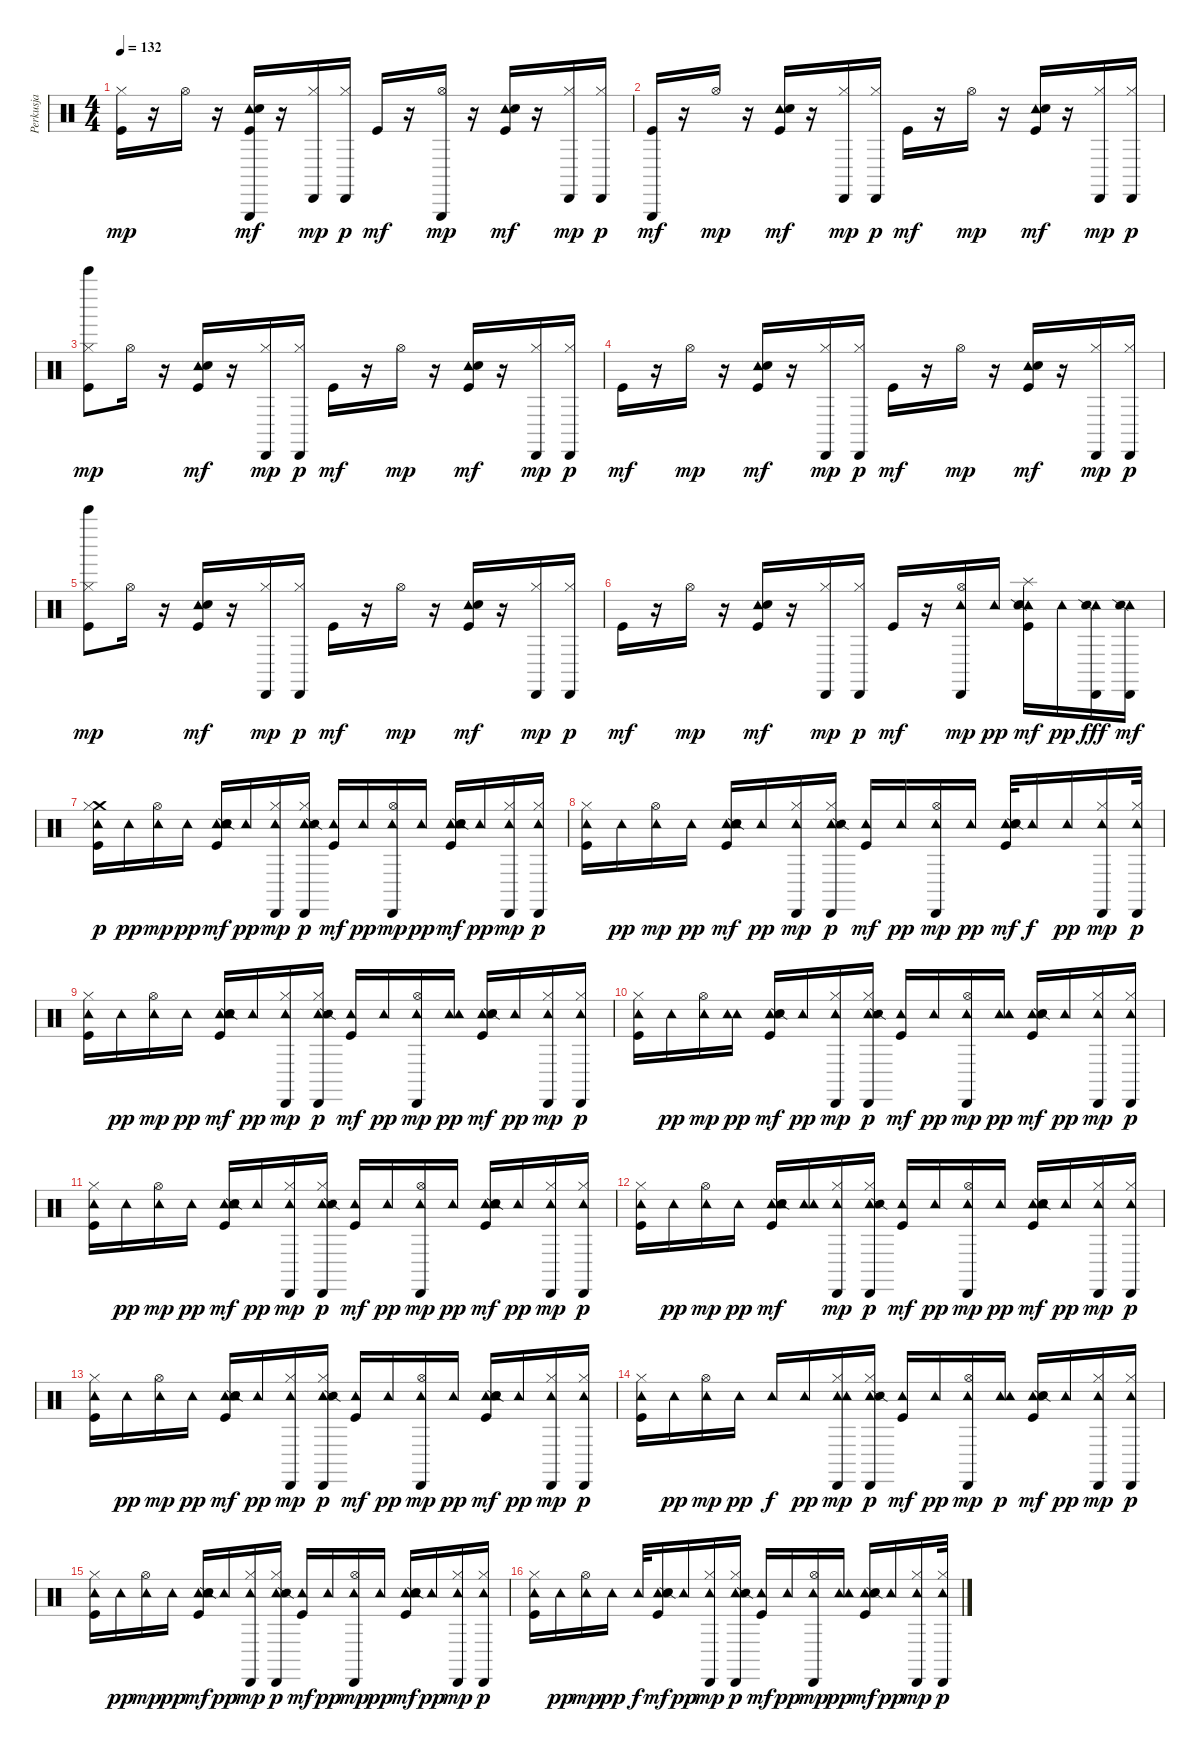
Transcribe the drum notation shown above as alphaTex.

\track ("Perkusja" "Perkusja") {instrument percussion}
\staff {score}
\articulation defaults
\ts (4 4)
\tempo 132
\clef neutral
\ks c
("Kick (hit)" "Hi-Hat (closed)").16{dy mp} r.16 "Hi-Hat (open)".16 r.16 ("Tambourine (hit)" "Snare (hit) 2" "Kick (hit)" "Triangle (hit)").16{dy mf} r.16 ("Cabasa (hit)" "Hi-Hat (closed)").16{dy mp} ("Cabasa (hit)" "Hi-Hat (closed)").16{dy p} "Kick (hit)".16{dy mf} r.16 ("Triangle (hit)" "Hi-Hat (open)").16{dy mp} r.16 ("Tambourine (hit)" "Snare (hit) 2" "Kick (hit)").16{dy mf} r.16 ("Cabasa (hit)" "Hi-Hat (closed)").16{dy mp} ("Cabasa (hit)" "Hi-Hat (closed)").16{dy p} |
("Triangle (hit)" "Kick (hit)").16{dy mf} r.16 "Hi-Hat (open)".16{dy mp} r.16 ("Tambourine (hit)" "Snare (hit) 2" "Kick (hit)").16{dy mf} r.16 ("Cabasa (hit)" "Hi-Hat (closed)").16{dy mp} ("Cabasa (hit)" "Hi-Hat (closed)").16{dy p} "Kick (hit)".16{dy mf} r.16 "Hi-Hat (open)".16{dy mp} r.16 ("Tambourine (hit)" "Snare (hit) 2" "Kick (hit)").16{dy mf} r.16 ("Cabasa (hit)" "Hi-Hat (closed)").16{dy mp} ("Cabasa (hit)" "Hi-Hat (closed)").16{dy p} |
("Bell Tree (hit)" "Kick (hit)" "Hi-Hat (closed)").8{dy mp} "Hi-Hat (open)".16 r.16 ("Tambourine (hit)" "Snare (hit) 2" "Kick (hit)").16{dy mf} r.16 ("Cabasa (hit)" "Hi-Hat (closed)").16{dy mp} ("Cabasa (hit)" "Hi-Hat (closed)").16{dy p} "Kick (hit)".16{dy mf} r.16 "Hi-Hat (open)".16{dy mp} r.16 ("Tambourine (hit)" "Snare (hit) 2" "Kick (hit)").16{dy mf} r.16 ("Cabasa (hit)" "Hi-Hat (closed)").16{dy mp} ("Cabasa (hit)" "Hi-Hat (closed)").16{dy p} |
"Kick (hit)".16{dy mf} r.16 "Hi-Hat (open)".16{dy mp} r.16 ("Tambourine (hit)" "Snare (hit) 2" "Kick (hit)").16{dy mf} r.16 ("Cabasa (hit)" "Hi-Hat (closed)").16{dy mp} ("Cabasa (hit)" "Hi-Hat (closed)").16{dy p} "Kick (hit)".16{dy mf} r.16 "Hi-Hat (open)".16{dy mp} r.16 ("Tambourine (hit)" "Snare (hit) 2" "Kick (hit)").16{dy mf} r.16 ("Cabasa (hit)" "Hi-Hat (closed)").16{dy mp} ("Cabasa (hit)" "Hi-Hat (closed)").16{dy p} |
("Bell Tree (hit)" "Kick (hit)" "Hi-Hat (closed)").8{dy mp} "Hi-Hat (open)".16 r.16 ("Tambourine (hit)" "Snare (hit) 2" "Kick (hit)").16{dy mf} r.16 ("Cabasa (hit)" "Hi-Hat (closed)").16{dy mp} ("Cabasa (hit)" "Hi-Hat (closed)").16{dy p} "Kick (hit)".16{dy mf} r.16 "Hi-Hat (open)".16{dy mp} r.16 ("Tambourine (hit)" "Snare (hit) 2" "Kick (hit)").16{dy mf} r.16 ("Cabasa (hit)" "Hi-Hat (closed)").16{dy mp} ("Cabasa (hit)" "Hi-Hat (closed)").16{dy p} |
"Kick (hit)".16{dy mf} r.16 "Hi-Hat (open)".16{dy mp} r.16 ("Tambourine (hit)" "Snare (hit) 2" "Kick (hit)").16{dy mf} r.16 ("Cabasa (hit)" "Hi-Hat (closed)").16{dy mp} ("Cabasa (hit)" "Hi-Hat (closed)").16{dy p} "Kick (hit)".16{dy mf} r.16 ("Tambourine (hit)" "Cabasa (hit)" "Hi-Hat (open)").16{dy mp} "Tambourine (hit)".16{dy pp} ("Tambourine (hit)" "Snare (hit) 2" "Snare (side stick) 2" "Kick (hit)" "Splash (hit)").16{dy mf} "Tambourine (hit)".16{dy pp} ("Tambourine (hit)" "Snare (side stick) 2" "Cabasa (hit)").16{dy fff} ("Tambourine (hit)" "Snare (side stick) 2" "Cabasa (hit)").16{dy mf} |
("Crash medium (hit)" "Tambourine (hit)" "Kick (hit)" "Hi-Hat (closed)").16{dy p} "Tambourine (hit)".16{dy pp} ("Tambourine (hit)" "Hi-Hat (open)").16{dy mp} "Tambourine (hit)".16{dy pp} ("Tambourine (hit)" "Snare (hit) 2" "Snare (side stick) 2" "Kick (hit)" "Tambourine (hit)").16{dy mf} "Tambourine (hit)".16{dy pp} ("Tambourine (hit)" "Cabasa (hit)" "Hi-Hat (closed)").16{dy mp} ("Tambourine (hit)" "Snare (side stick) 2" "Cabasa (hit)" "Hi-Hat (closed)").16{dy p} ("Tambourine (hit)" "Kick (hit)").16{dy mf} "Tambourine (hit)".16{dy pp} ("Tambourine (hit)" "Cabasa (hit)" "Hi-Hat (open)").16{dy mp} "Tambourine (hit)".16{dy pp} ("Tambourine (hit)" "Tambourine (hit)" "Snare (hit) 2" "Snare (side stick) 2" "Kick (hit)").16{dy mf} "Tambourine (hit)".16{dy pp} ("Tambourine (hit)" "Cabasa (hit)" "Hi-Hat (closed)").16{dy mp} ("Tambourine (hit)" "Cabasa (hit)" "Hi-Hat (closed)").16{dy p} |
("Tambourine (hit)" "Kick (hit)" "Hi-Hat (closed)").16 "Tambourine (hit)".16{dy pp} ("Tambourine (hit)" "Hi-Hat (open)").16{dy mp} "Tambourine (hit)".16{dy pp} ("Tambourine (hit)" "Snare (hit) 2" "Snare (side stick) 2" "Kick (hit)" "Tambourine (hit)").16{dy mf} "Tambourine (hit)".16{dy pp} ("Tambourine (hit)" "Cabasa (hit)" "Hi-Hat (closed)").16{dy mp} ("Tambourine (hit)" "Snare (side stick) 2" "Cabasa (hit)" "Hi-Hat (closed)").16{dy p} ("Tambourine (hit)" "Kick (hit)").16{dy mf} "Tambourine (hit)".16{dy pp} ("Tambourine (hit)" "Cabasa (hit)" "Hi-Hat (open)").16{dy mp} "Tambourine (hit)".16{dy pp} ("Tambourine (hit)" "Snare (hit) 2" "Snare (side stick) 2" "Kick (hit)").32{dy mf} "Tambourine (hit)".16{dy f} "Tambourine (hit)".16{dy pp} ("Tambourine (hit)" "Cabasa (hit)" "Hi-Hat (closed)").16{dy mp} ("Tambourine (hit)" "Cabasa (hit)" "Hi-Hat (closed)").32{dy p} |
("Tambourine (hit)" "Kick (hit)" "Hi-Hat (closed)").16 "Tambourine (hit)".16{dy pp} ("Tambourine (hit)" "Hi-Hat (open)").16{dy mp} "Tambourine (hit)".16{dy pp} ("Tambourine (hit)" "Tambourine (hit)" "Snare (hit) 2" "Snare (side stick) 2" "Kick (hit)").16{dy mf} "Tambourine (hit)".16{dy pp} ("Tambourine (hit)" "Cabasa (hit)" "Hi-Hat (closed)").16{dy mp} ("Tambourine (hit)" "Snare (side stick) 2" "Cabasa (hit)" "Hi-Hat (closed)").16{dy p} ("Tambourine (hit)" "Kick (hit)").16{dy mf} "Tambourine (hit)".16{dy pp} ("Tambourine (hit)" "Cabasa (hit)" "Hi-Hat (open)").16{dy mp} ("Tambourine (hit)" "Tambourine (hit)").16{dy pp} ("Tambourine (hit)" "Snare (hit) 2" "Snare (side stick) 2" "Kick (hit)").16{dy mf} "Tambourine (hit)".16{dy pp} ("Tambourine (hit)" "Cabasa (hit)" "Hi-Hat (closed)").16{dy mp} ("Tambourine (hit)" "Cabasa (hit)" "Hi-Hat (closed)").16{dy p} |
("Tambourine (hit)" "Kick (hit)" "Hi-Hat (closed)").16 "Tambourine (hit)".16{dy pp} ("Tambourine (hit)" "Hi-Hat (open)").16{dy mp} ("Tambourine (hit)" "Tambourine (hit)").16{dy pp} ("Tambourine (hit)" "Snare (hit) 2" "Snare (side stick) 2" "Kick (hit)").16{dy mf} "Tambourine (hit)".16{dy pp} ("Tambourine (hit)" "Cabasa (hit)" "Hi-Hat (closed)").16{dy mp} ("Tambourine (hit)" "Snare (side stick) 2" "Cabasa (hit)" "Hi-Hat (closed)").16{dy p} ("Tambourine (hit)" "Kick (hit)").16{dy mf} "Tambourine (hit)".16{dy pp} ("Tambourine (hit)" "Cabasa (hit)" "Hi-Hat (open)").16{dy mp} ("Tambourine (hit)" "Tambourine (hit)").16{dy pp} ("Tambourine (hit)" "Snare (hit) 2" "Snare (side stick) 2" "Kick (hit)").16{dy mf} "Tambourine (hit)".16{dy pp} ("Tambourine (hit)" "Cabasa (hit)" "Hi-Hat (closed)").16{dy mp} ("Tambourine (hit)" "Cabasa (hit)" "Hi-Hat (closed)").16{dy p} |
("Tambourine (hit)" "Kick (hit)" "Hi-Hat (closed)").16 "Tambourine (hit)".16{dy pp} ("Tambourine (hit)" "Hi-Hat (open)").16{dy mp} "Tambourine (hit)".16{dy pp} ("Tambourine (hit)" "Snare (hit) 2" "Snare (side stick) 2" "Kick (hit)" "Tambourine (hit)").16{dy mf} "Tambourine (hit)".16{dy pp} ("Tambourine (hit)" "Cabasa (hit)" "Hi-Hat (closed)").16{dy mp} ("Tambourine (hit)" "Snare (side stick) 2" "Cabasa (hit)" "Hi-Hat (closed)").16{dy p} ("Tambourine (hit)" "Kick (hit)").16{dy mf} "Tambourine (hit)".16{dy pp} ("Tambourine (hit)" "Cabasa (hit)" "Hi-Hat (open)").16{dy mp} "Tambourine (hit)".16{dy pp} ("Tambourine (hit)" "Tambourine (hit)" "Snare (hit) 2" "Snare (side stick) 2" "Kick (hit)").16{dy mf} "Tambourine (hit)".16{dy pp} ("Tambourine (hit)" "Cabasa (hit)" "Hi-Hat (closed)").16{dy mp} ("Tambourine (hit)" "Cabasa (hit)" "Hi-Hat (closed)").16{dy p} |
("Tambourine (hit)" "Kick (hit)" "Hi-Hat (closed)").16 "Tambourine (hit)".16{dy pp} ("Tambourine (hit)" "Hi-Hat (open)").16{dy mp} "Tambourine (hit)".16{dy pp} ("Tambourine (hit)" "Tambourine (hit)" "Snare (hit) 2" "Snare (side stick) 2" "Kick (hit)").16{dy mf} ("Tambourine (hit)" "Tambourine (hit)").16 ("Tambourine (hit)" "Cabasa (hit)" "Hi-Hat (closed)").16{dy mp} ("Tambourine (hit)" "Snare (side stick) 2" "Cabasa (hit)" "Hi-Hat (closed)").16{dy p} ("Tambourine (hit)" "Kick (hit)").16{dy mf} "Tambourine (hit)".16{dy pp} ("Tambourine (hit)" "Cabasa (hit)" "Hi-Hat (open)").16{dy mp} "Tambourine (hit)".16{dy pp} ("Tambourine (hit)" "Tambourine (hit)" "Snare (hit) 2" "Snare (side stick) 2" "Kick (hit)").16{dy mf} "Tambourine (hit)".16{dy pp} ("Tambourine (hit)" "Cabasa (hit)" "Hi-Hat (closed)").16{dy mp} ("Tambourine (hit)" "Cabasa (hit)" "Hi-Hat (closed)").16{dy p} |
("Tambourine (hit)" "Kick (hit)" "Hi-Hat (closed)").16 "Tambourine (hit)".16{dy pp} ("Tambourine (hit)" "Hi-Hat (open)").16{dy mp} "Tambourine (hit)".16{dy pp} ("Tambourine (hit)" "Snare (hit) 2" "Snare (side stick) 2" "Kick (hit)" "Tambourine (hit)").16{dy mf} "Tambourine (hit)".16{dy pp} ("Tambourine (hit)" "Cabasa (hit)" "Hi-Hat (closed)").16{dy mp} ("Tambourine (hit)" "Snare (side stick) 2" "Cabasa (hit)" "Hi-Hat (closed)").16{dy p} ("Tambourine (hit)" "Kick (hit)").16{dy mf} "Tambourine (hit)".16{dy pp} ("Tambourine (hit)" "Cabasa (hit)" "Hi-Hat (open)").16{dy mp} "Tambourine (hit)".16{dy pp} ("Tambourine (hit)" "Tambourine (hit)" "Snare (hit) 2" "Snare (side stick) 2" "Kick (hit)").16{dy mf} "Tambourine (hit)".16{dy pp} ("Tambourine (hit)" "Cabasa (hit)" "Hi-Hat (closed)").16{dy mp} ("Tambourine (hit)" "Cabasa (hit)" "Hi-Hat (closed)").16{dy p} |
("Tambourine (hit)" "Kick (hit)" "Hi-Hat (closed)").16 "Tambourine (hit)".16{dy pp} ("Tambourine (hit)" "Hi-Hat (open)").16{dy mp} "Tambourine (hit)".16{dy pp} "Tambourine (hit)".16{dy f} "Tambourine (hit)".16{dy pp} ("Tambourine (hit)" "Tambourine (hit)" "Cabasa (hit)" "Hi-Hat (closed)").16{dy mp} ("Tambourine (hit)" "Snare (side stick) 2" "Cabasa (hit)" "Hi-Hat (closed)").16{dy p} ("Tambourine (hit)" "Kick (hit)").16{dy mf} "Tambourine (hit)".16{dy pp} ("Tambourine (hit)" "Cabasa (hit)" "Hi-Hat (open)").16{dy mp} ("Tambourine (hit)" "Tambourine (hit)").16{dy p} ("Tambourine (hit)" "Snare (hit) 2" "Snare (side stick) 2" "Kick (hit)").16{dy mf} "Tambourine (hit)".16{dy pp} ("Tambourine (hit)" "Cabasa (hit)" "Hi-Hat (closed)").16{dy mp} ("Tambourine (hit)" "Cabasa (hit)" "Hi-Hat (closed)").16{dy p} |
("Tambourine (hit)" "Kick (hit)" "Hi-Hat (closed)").16 "Tambourine (hit)".16{dy pp} ("Tambourine (hit)" "Hi-Hat (open)").16{dy mp} "Tambourine (hit)".16{dy pp} ("Tambourine (hit)" "Tambourine (hit)" "Snare (hit) 2" "Snare (side stick) 2" "Kick (hit)").16{dy mf} "Tambourine (hit)".16{dy pp} ("Tambourine (hit)" "Cabasa (hit)" "Hi-Hat (closed)").16{dy mp} ("Tambourine (hit)" "Snare (side stick) 2" "Cabasa (hit)" "Hi-Hat (closed)").16{dy p} ("Tambourine (hit)" "Kick (hit)").16{dy mf} "Tambourine (hit)".16{dy pp} ("Tambourine (hit)" "Cabasa (hit)" "Hi-Hat (open)").16{dy mp} "Tambourine (hit)".16{dy pp} ("Tambourine (hit)" "Tambourine (hit)" "Snare (hit) 2" "Snare (side stick) 2" "Kick (hit)").16{dy mf} "Tambourine (hit)".16{dy pp} ("Tambourine (hit)" "Cabasa (hit)" "Hi-Hat (closed)").16{dy mp} ("Tambourine (hit)" "Cabasa (hit)" "Hi-Hat (closed)").16{dy p} |
("Tambourine (hit)" "Kick (hit)" "Hi-Hat (closed)").16 "Tambourine (hit)".16{dy pp} ("Tambourine (hit)" "Hi-Hat (open)").16{dy mp} "Tambourine (hit)".16{dy pp} "Tambourine (hit)".32{dy f} ("Tambourine (hit)" "Snare (hit) 2" "Snare (side stick) 2" "Kick (hit)").16{dy mf} "Tambourine (hit)".16{dy pp} ("Tambourine (hit)" "Cabasa (hit)" "Hi-Hat (closed)").16{dy mp} ("Tambourine (hit)" "Snare (side stick) 2" "Cabasa (hit)" "Hi-Hat (closed)").16{dy p} ("Tambourine (hit)" "Kick (hit)").16{dy mf} "Tambourine (hit)".16{dy pp} ("Tambourine (hit)" "Cabasa (hit)" "Hi-Hat (open)").16{dy mp} ("Tambourine (hit)" "Tambourine (hit)").16{dy pp} ("Tambourine (hit)" "Snare (hit) 2" "Snare (side stick) 2" "Kick (hit)").16{dy mf} "Tambourine (hit)".16{dy pp} ("Tambourine (hit)" "Cabasa (hit)" "Hi-Hat (closed)").16{dy mp} ("Tambourine (hit)" "Cabasa (hit)" "Hi-Hat (closed)").32{dy p}
